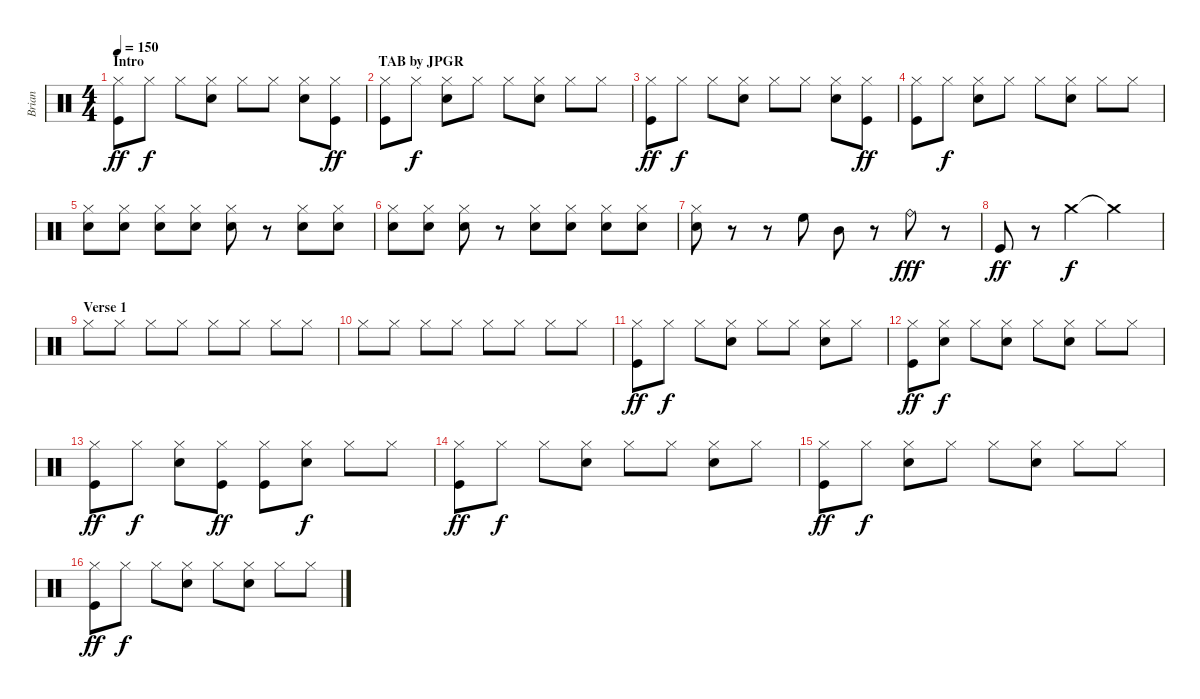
\track ("Brian" "Brian") {instrument percussion}
\staff {score}
\articulation defaults
\ts (4 4)
\section ("" "Intro                                                                   TAB by JPGR")
\tempo 150
\clef neutral
\ks c
("Hi-Hat (closed)" "Kick (hit)").8{dy ff} "Hi-Hat (closed)".8{dy f} "Hi-Hat (closed)".8 ("Hi-Hat (closed)" "Snare (hit) 2").8 "Hi-Hat (closed)".8 "Hi-Hat (closed)".8 ("Hi-Hat (closed)" "Snare (hit) 2").8 ("Hi-Hat (closed)" "Kick (hit)").8{dy ff} |
("Hi-Hat (closed)" "Kick (hit)").8 "Hi-Hat (closed)".8{dy f} ("Hi-Hat (closed)" "Snare (hit) 2").8 "Hi-Hat (closed)".8 "Hi-Hat (closed)".8 ("Hi-Hat (closed)" "Snare (hit) 2").8 "Hi-Hat (closed)".8 "Hi-Hat (closed)".8 |
("Hi-Hat (closed)" "Kick (hit)").8{dy ff} "Hi-Hat (closed)".8{dy f} "Hi-Hat (closed)".8 ("Hi-Hat (closed)" "Snare (hit) 2").8 "Hi-Hat (closed)".8 "Hi-Hat (closed)".8 ("Hi-Hat (closed)" "Snare (hit) 2").8 ("Hi-Hat (closed)" "Kick (hit)").8{dy ff} |
("Hi-Hat (closed)" "Kick (hit)").8 "Hi-Hat (closed)".8{dy f} ("Hi-Hat (closed)" "Snare (hit) 2").8 "Hi-Hat (closed)".8 "Hi-Hat (closed)".8 ("Hi-Hat (closed)" "Snare (hit) 2").8 "Hi-Hat (closed)".8 "Hi-Hat (closed)".8 |
("Hi-Hat (closed)" "Snare (hit) 2").8 ("Hi-Hat (closed)" "Snare (hit) 2").8 ("Hi-Hat (closed)" "Snare (hit) 2").8 ("Hi-Hat (closed)" "Snare (hit) 2").8 ("Hi-Hat (closed)" "Snare (hit) 2").8 r.8 ("Hi-Hat (closed)" "Snare (hit) 2").8 ("Hi-Hat (closed)" "Snare (hit) 2").8 |
("Hi-Hat (closed)" "Snare (hit) 2").8 ("Hi-Hat (closed)" "Snare (hit) 2").8 ("Hi-Hat (closed)" "Snare (hit) 2").8 r.8 ("Hi-Hat (closed)" "Snare (hit) 2").8 ("Hi-Hat (closed)" "Snare (hit) 2").8 ("Hi-Hat (closed)" "Snare (hit) 2").8 ("Hi-Hat (closed)" "Snare (hit) 2").8 |
("Hi-Hat (closed)" "Snare (hit) 2").8 r.8 r.8 "High Floor Tom (hit)".8 "Mid Tom (hit)".8 r.8 "Ride (bell)".8{dy fff} r.8 |
"Kick (hit)".8{dy ff} r.8 "Crash medium (hit)".4{dy f} "Crash medium (hit)"{t}.2 |
\section ("" "Verse 1")
"Hi-Hat (closed)".8 "Hi-Hat (closed)".8 "Hi-Hat (closed)".8 "Hi-Hat (closed)".8 "Hi-Hat (closed)".8 "Hi-Hat (closed)".8 "Hi-Hat (closed)".8 "Hi-Hat (closed)".8 |
"Hi-Hat (closed)".8 "Hi-Hat (closed)".8 "Hi-Hat (closed)".8 "Hi-Hat (closed)".8 "Hi-Hat (closed)".8 "Hi-Hat (closed)".8 "Hi-Hat (closed)".8 "Hi-Hat (closed)".8 |
("Hi-Hat (closed)" "Kick (hit)").8{dy ff} "Hi-Hat (closed)".8{dy f} "Hi-Hat (closed)".8 ("Hi-Hat (closed)" "Snare (hit) 2").8 "Hi-Hat (closed)".8 "Hi-Hat (closed)".8 ("Hi-Hat (closed)" "Snare (hit) 2").8 "Hi-Hat (closed)".8 |
("Hi-Hat (closed)" "Kick (hit)").8{dy ff} ("Hi-Hat (closed)" "Snare (hit) 2").8{dy f} "Hi-Hat (closed)".8 ("Hi-Hat (closed)" "Snare (hit) 2").8 "Hi-Hat (closed)".8 ("Hi-Hat (closed)" "Snare (hit) 2").8 "Hi-Hat (closed)".8 "Hi-Hat (closed)".8 |
("Hi-Hat (closed)" "Kick (hit)").8{dy ff} "Hi-Hat (closed)".8{dy f} ("Hi-Hat (closed)" "Snare (hit) 2").8 ("Hi-Hat (closed)" "Kick (hit)").8{dy ff} ("Hi-Hat (closed)" "Kick (hit)").8 ("Hi-Hat (closed)" "Snare (hit) 2").8{dy f} "Hi-Hat (closed)".8 "Hi-Hat (closed)".8 |
("Hi-Hat (closed)" "Kick (hit)").8{dy ff} "Hi-Hat (closed)".8{dy f} "Hi-Hat (closed)".8 ("Hi-Hat (closed)" "Snare (hit) 2").8 "Hi-Hat (closed)".8 "Hi-Hat (closed)".8 ("Hi-Hat (closed)" "Snare (hit) 2").8 "Hi-Hat (closed)".8 |
("Hi-Hat (closed)" "Kick (hit)").8{dy ff} "Hi-Hat (closed)".8{dy f} ("Hi-Hat (closed)" "Snare (hit) 2").8 "Hi-Hat (closed)".8 "Hi-Hat (closed)".8 ("Hi-Hat (closed)" "Snare (hit) 2").8 "Hi-Hat (closed)".8 "Hi-Hat (closed)".8 |
("Hi-Hat (closed)" "Kick (hit)").8{dy ff} "Hi-Hat (closed)".8{dy f} "Hi-Hat (closed)".8 ("Hi-Hat (closed)" "Snare (hit) 2").8 "Hi-Hat (closed)".8 ("Hi-Hat (closed)" "Snare (hit) 2").8 "Hi-Hat (closed)".8 "Hi-Hat (closed)".8
